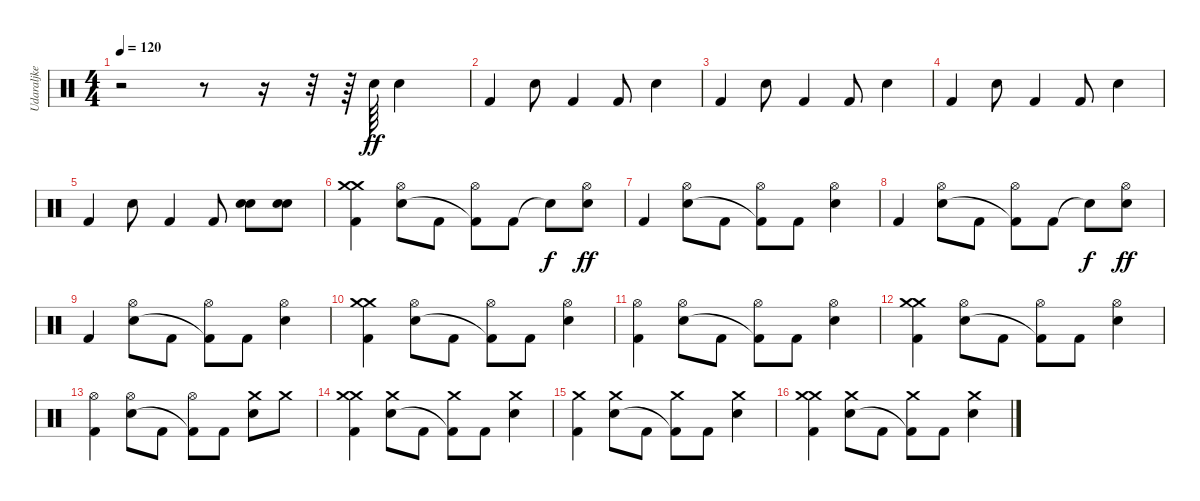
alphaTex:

\track ("Udaraljke" "Udaraljke") {instrument percussion}
\staff {score}
\articulation defaults
\ts (4 4)
\tempo 120
\clef neutral
\ks c
r.2{dy fff} r.8 r.16 r.32 r.64 "Electric Snare (hit)".64{dy ff} "Electric Snare (hit)".4 |
"Kick (hit) 2".4 "Electric Snare (hit)".8 "Kick (hit) 2".4 "Kick (hit) 2".8 "Electric Snare (hit)".4 |
"Kick (hit) 2".4 "Electric Snare (hit)".8 "Kick (hit) 2".4 "Kick (hit) 2".8 "Electric Snare (hit)".4 |
"Kick (hit) 2".4 "Electric Snare (hit)".8 "Kick (hit) 2".4 "Kick (hit) 2".8 "Electric Snare (hit)".4 |
"Kick (hit) 2".4 "Electric Snare (hit)".8 "Kick (hit) 2".4 "Kick (hit) 2".8 ("Electric Snare (hit)" "Electric Snare (hit)").8 ("Electric Snare (hit)" "Electric Snare (hit)").8 |
("Crash medium (hit)" "Crash medium (hit)" "Kick (hit) 2").4 ("Hi-Hat (open)" "Electric Snare (hit)").8 "Kick (hit) 2".8 ("Hi-Hat (open)" "Kick (hit) 2"{t}).8 "Kick (hit) 2".8 "Snare (hit) 2"{t}.8{dy f} ("Hi-Hat (open)" "Electric Snare (hit)").8{dy ff} |
"Kick (hit) 2".4 ("Hi-Hat (open)" "Electric Snare (hit)").8 "Kick (hit) 2".8 ("Hi-Hat (open)" "Kick (hit) 2"{t}).8 "Kick (hit) 2".8 ("Hi-Hat (open)" "Electric Snare (hit)").4 |
"Kick (hit) 2".4 ("Hi-Hat (open)" "Electric Snare (hit)").8 "Kick (hit) 2".8 ("Hi-Hat (open)" "Kick (hit) 2"{t}).8 "Kick (hit) 2".8 "Snare (hit) 2"{t}.8{dy f} ("Hi-Hat (open)" "Electric Snare (hit)").8{dy ff} |
"Kick (hit) 2".4 ("Hi-Hat (open)" "Electric Snare (hit)").8 "Kick (hit) 2".8 ("Hi-Hat (open)" "Kick (hit) 2"{t}).8 "Kick (hit) 2".8 ("Hi-Hat (open)" "Electric Snare (hit)").4 |
("Crash medium (hit)" "Crash medium (hit)" "Kick (hit) 2").4 ("Hi-Hat (open)" "Electric Snare (hit)").8 "Kick (hit) 2".8 ("Hi-Hat (open)" "Kick (hit) 2"{t}).8 "Kick (hit) 2".8 ("Hi-Hat (open)" "Electric Snare (hit)").4 |
("Hi-Hat (open)" "Kick (hit) 2").4 ("Hi-Hat (open)" "Electric Snare (hit)").8 "Kick (hit) 2".8 ("Hi-Hat (open)" "Kick (hit) 2"{t}).8 "Kick (hit) 2".8 ("Hi-Hat (open)" "Electric Snare (hit)").4 |
("Crash medium (hit)" "Crash medium (hit)" "Kick (hit) 2").4 ("Hi-Hat (open)" "Electric Snare (hit)").8 "Kick (hit) 2".8 ("Hi-Hat (open)" "Kick (hit) 2"{t}).8 "Kick (hit) 2".8 ("Hi-Hat (open)" "Electric Snare (hit)").4 |
("Hi-Hat (open)" "Kick (hit) 2").4 ("Hi-Hat (open)" "Electric Snare (hit)").8 "Kick (hit) 2".8 ("Hi-Hat (open)" "Kick (hit) 2"{t}).8 "Kick (hit) 2".8 ("Crash medium (hit)" "Electric Snare (hit)").8 "Crash medium (hit)".8 |
("Crash medium (hit)" "Crash medium (hit)" "Kick (hit) 2").4 ("Crash medium (hit)" "Electric Snare (hit)").8 "Kick (hit) 2".8 ("Crash medium (hit)" "Kick (hit) 2"{t}).8 "Kick (hit) 2".8 ("Crash medium (hit)" "Electric Snare (hit)").4 |
("Crash medium (hit)" "Kick (hit) 2").4 ("Crash medium (hit)" "Electric Snare (hit)").8 "Kick (hit) 2".8 ("Crash medium (hit)" "Kick (hit) 2"{t}).8 "Kick (hit) 2".8 ("Crash medium (hit)" "Electric Snare (hit)").4 |
("Crash medium (hit)" "Crash medium (hit)" "Kick (hit) 2").4 ("Crash medium (hit)" "Electric Snare (hit)").8 "Kick (hit) 2".8 ("Crash medium (hit)" "Kick (hit) 2"{t}).8 "Kick (hit) 2".8 ("Crash medium (hit)" "Electric Snare (hit)").4
